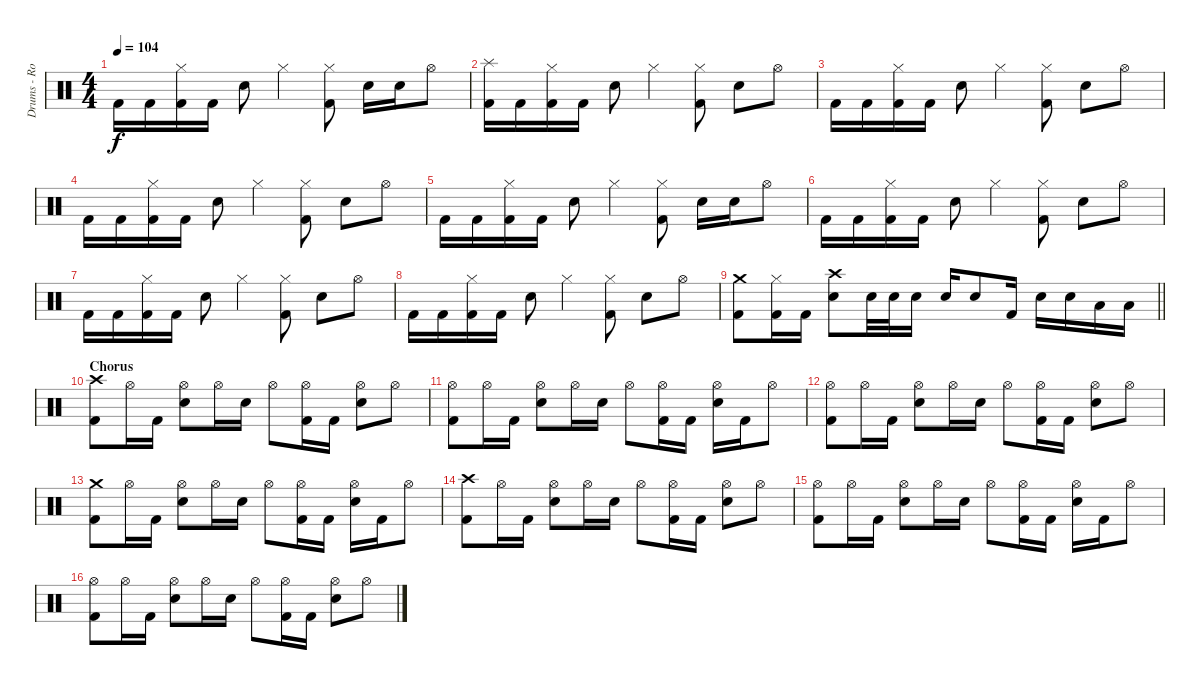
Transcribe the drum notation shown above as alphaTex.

\track ("Drums - Rob Bourdon" "Drums - Ro") {instrument percussion}
\staff {score}
\articulation defaults
\ts (4 4)
\tempo 104
\clef neutral
\ks c "Kick (hit) 2".16{dy f} "Kick (hit) 2".16
("Hi-Hat (closed)" "Kick (hit) 2").16 "Kick (hit) 2".16 "Snare (hit) 2".8 "Hi-Hat (closed)".4 ("Hi-Hat (closed)" "Kick (hit) 2").8 "Snare (hit) 2".16 "Snare (hit) 2".16 "Hi-Hat (open)".8 |
("Splash (hit)" "Kick (hit) 2").16 "Kick (hit) 2".16 ("Hi-Hat (closed)" "Kick (hit) 2").16 "Kick (hit) 2".16 "Snare (hit) 2".8 "Hi-Hat (closed)".4 ("Hi-Hat (closed)" "Kick (hit) 2").8 "Snare (hit) 2".8 "Hi-Hat (open)".8 |
"Kick (hit) 2".16 "Kick (hit) 2".16 ("Hi-Hat (closed)" "Kick (hit) 2").16 "Kick (hit) 2".16 "Snare (hit) 2".8 "Hi-Hat (closed)".4 ("Hi-Hat (closed)" "Kick (hit) 2").8 "Snare (hit) 2".8 "Hi-Hat (open)".8 |
"Kick (hit) 2".16 "Kick (hit) 2".16 ("Hi-Hat (closed)" "Kick (hit) 2").16 "Kick (hit) 2".16 "Snare (hit) 2".8 "Hi-Hat (closed)".4 ("Hi-Hat (closed)" "Kick (hit) 2").8 "Snare (hit) 2".8 "Hi-Hat (open)".8 |
"Kick (hit) 2".16 "Kick (hit) 2".16 ("Hi-Hat (closed)" "Kick (hit) 2").16 "Kick (hit) 2".16 "Snare (hit) 2".8 "Hi-Hat (closed)".4 ("Hi-Hat (closed)" "Kick (hit) 2").8 "Snare (hit) 2".16 "Snare (hit) 2".16 "Hi-Hat (open)".8 |
"Kick (hit) 2".16 "Kick (hit) 2".16 ("Hi-Hat (closed)" "Kick (hit) 2").16 "Kick (hit) 2".16 "Snare (hit) 2".8 "Hi-Hat (closed)".4 ("Hi-Hat (closed)" "Kick (hit) 2").8 "Snare (hit) 2".8 "Hi-Hat (open)".8 |
"Kick (hit) 2".16 "Kick (hit) 2".16 ("Hi-Hat (closed)" "Kick (hit) 2").16 "Kick (hit) 2".16 "Snare (hit) 2".8 "Hi-Hat (closed)".4 ("Hi-Hat (closed)" "Kick (hit) 2").8 "Snare (hit) 2".8 "Hi-Hat (open)".8 |
"Kick (hit) 2".16 "Kick (hit) 2".16 ("Hi-Hat (closed)" "Kick (hit) 2").16 "Kick (hit) 2".16 "Snare (hit) 2".8 "Hi-Hat (closed)".4 ("Hi-Hat (closed)" "Kick (hit) 2").8 "Snare (hit) 2".8 "Hi-Hat (open)".8 |
\barLineRight lightlight
("Crash medium (hit)" "Kick (hit) 2").8 ("Hi-Hat (closed)" "Kick (hit) 2").16 "Kick (hit) 2".16 ("Crash high (hit)" "Snare (hit) 2").8 "Snare (hit) 2".32 "Snare (hit) 2".32 "Snare (hit) 2".16 "Snare (hit) 2".16 "Snare (hit) 2".8 "Kick (hit) 2".16 "Snare (hit) 2".16 "Snare (hit) 2".16 "Low Tom (hit)".16 "Low Tom (hit)".16 |
\section ("" "Chorus")
("Crash high (hit)" "Kick (hit) 2").8 "Hi-Hat (open)".16 "Kick (hit) 2".16 ("Hi-Hat (open)" "Snare (hit) 2").8 "Hi-Hat (open)".16 "Snare (hit) 2".16 "Hi-Hat (open)".8 ("Hi-Hat (open)" "Kick (hit) 2").16 "Kick (hit) 2".16 ("Hi-Hat (open)" "Snare (hit) 2").8 "Hi-Hat (open)".8 |
("Hi-Hat (open)" "Kick (hit) 2").8 "Hi-Hat (open)".16 "Kick (hit) 2".16 ("Hi-Hat (open)" "Snare (hit) 2").8 "Hi-Hat (open)".16 "Snare (hit) 2".16 "Hi-Hat (open)".8 ("Hi-Hat (open)" "Kick (hit) 2").16 "Kick (hit) 2".16 ("Hi-Hat (open)" "Snare (hit) 2").16 "Kick (hit) 2".16 "Hi-Hat (open)".8 |
("Hi-Hat (open)" "Kick (hit) 2").8 "Hi-Hat (open)".16 "Kick (hit) 2".16 ("Hi-Hat (open)" "Snare (hit) 2").8 "Hi-Hat (open)".16 "Snare (hit) 2".16 "Hi-Hat (open)".8 ("Hi-Hat (open)" "Kick (hit) 2").16 "Kick (hit) 2".16 ("Hi-Hat (open)" "Snare (hit) 2").8 "Hi-Hat (open)".8 |
("Crash medium (hit)" "Kick (hit) 2").8 "Hi-Hat (open)".16 "Kick (hit) 2".16 ("Hi-Hat (open)" "Snare (hit) 2").8 "Hi-Hat (open)".16 "Snare (hit) 2".16 "Hi-Hat (open)".8 ("Hi-Hat (open)" "Kick (hit) 2").16 "Kick (hit) 2".16 ("Hi-Hat (open)" "Snare (hit) 2").16 "Kick (hit) 2".16 "Hi-Hat (open)".8 |
("Crash high (hit)" "Kick (hit) 2").8 "Hi-Hat (open)".16 "Kick (hit) 2".16 ("Hi-Hat (open)" "Snare (hit) 2").8 "Hi-Hat (open)".16 "Snare (hit) 2".16 "Hi-Hat (open)".8 ("Hi-Hat (open)" "Kick (hit) 2").16 "Kick (hit) 2".16 ("Hi-Hat (open)" "Snare (hit) 2").8 "Hi-Hat (open)".8 |
("Hi-Hat (open)" "Kick (hit) 2").8 "Hi-Hat (open)".16 "Kick (hit) 2".16 ("Hi-Hat (open)" "Snare (hit) 2").8 "Hi-Hat (open)".16 "Snare (hit) 2".16 "Hi-Hat (open)".8 ("Hi-Hat (open)" "Kick (hit) 2").16 "Kick (hit) 2".16 ("Hi-Hat (open)" "Snare (hit) 2").16 "Kick (hit) 2".16 "Hi-Hat (open)".8 |
("Hi-Hat (open)" "Kick (hit) 2").8 "Hi-Hat (open)".16 "Kick (hit) 2".16 ("Hi-Hat (open)" "Snare (hit) 2").8 "Hi-Hat (open)".16 "Snare (hit) 2".16 "Hi-Hat (open)".8 ("Hi-Hat (open)" "Kick (hit) 2").16 "Kick (hit) 2".16 ("Hi-Hat (open)" "Snare (hit) 2").8 "Hi-Hat (open)".8
